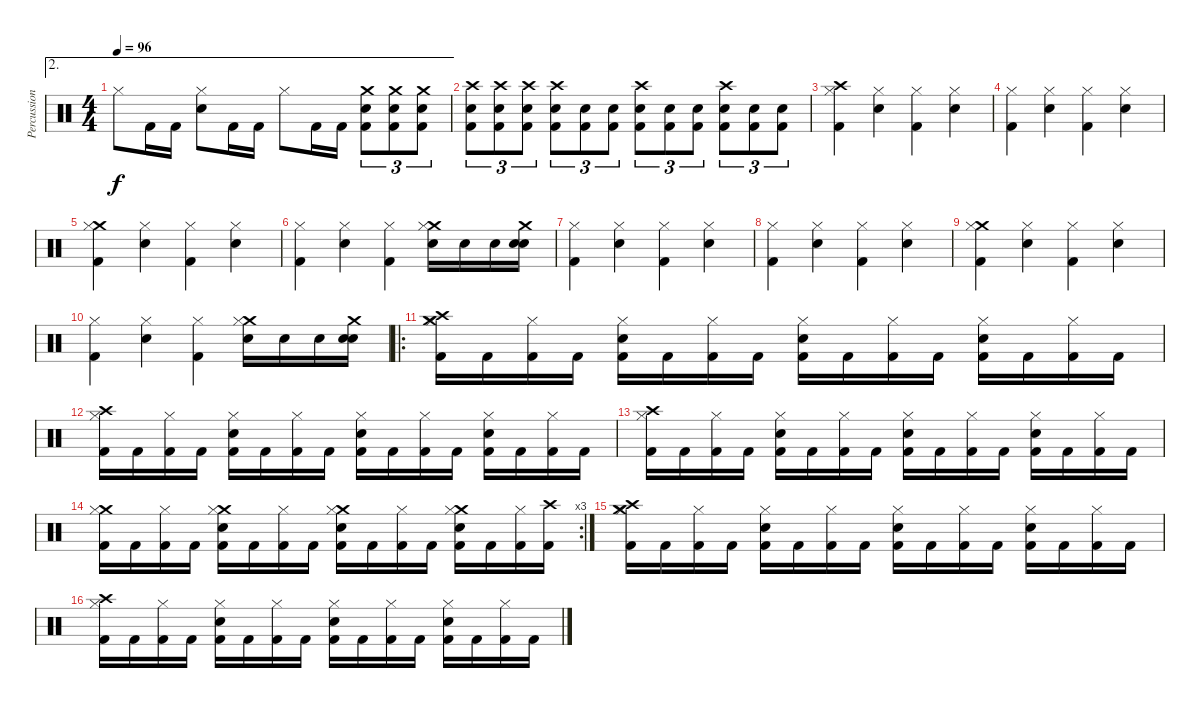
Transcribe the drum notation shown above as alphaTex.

\track ("Percussion" "Percussion") {instrument percussion bank 255}
\staff {score}
\articulation defaults
\ae 2
\ts (4 4)
\tempo 96
\clef neutral
\ks c "Hi-Hat (closed)".8{dy f} "Kick (hit) 2".16 "Kick (hit) 2".16
("Hi-Hat (closed)" "Electric Snare (hit)").8 "Kick (hit) 2".16 "Kick (hit) 2".16 "Hi-Hat (closed)".8 "Kick (hit) 2".16 "Kick (hit) 2".16 ("Crash medium (hit)" "Electric Snare (hit)" "Kick (hit) 2").8{tu (3 2)} ("Crash medium (hit)" "Electric Snare (hit)" "Kick (hit) 2").8{tu (3 2)} ("Crash medium (hit)" "Electric Snare (hit)" "Kick (hit) 2").8{tu (3 2)} |
("Crash high (hit)" "Electric Snare (hit)" "Kick (hit) 2").8{tu (3 2)} ("Crash high (hit)" "Electric Snare (hit)" "Kick (hit) 2").8{tu (3 2)} ("Crash high (hit)" "Electric Snare (hit)" "Kick (hit) 2").8{tu (3 2)} ("Crash high (hit)" "Electric Snare (hit)" "Kick (hit) 2").8{tu (3 2)} ("Electric Snare (hit)" "Kick (hit) 2").8{tu (3 2)} ("Electric Snare (hit)" "Kick (hit) 2").8{tu (3 2)} ("Crash high (hit)" "Electric Snare (hit)" "Kick (hit) 2").8{tu (3 2)} ("Electric Snare (hit)" "Kick (hit) 2").8{tu (3 2)} ("Electric Snare (hit)" "Kick (hit) 2").8{tu (3 2)} ("Crash high (hit)" "Electric Snare (hit)" "Kick (hit) 2").8{tu (3 2)} ("Electric Snare (hit)" "Kick (hit) 2").8{tu (3 2)} ("Electric Snare (hit)" "Kick (hit) 2").8{tu (3 2)} |
("Hi-Hat (closed)" "Crash high (hit)" "Kick (hit) 2").4 ("Hi-Hat (closed)" "Electric Snare (hit)").4 ("Hi-Hat (closed)" "Kick (hit) 2").4 ("Hi-Hat (closed)" "Electric Snare (hit)").4 |
("Hi-Hat (closed)" "Kick (hit) 2").4 ("Hi-Hat (closed)" "Electric Snare (hit)").4 ("Hi-Hat (closed)" "Kick (hit) 2").4 ("Hi-Hat (closed)" "Electric Snare (hit)").4 |
("Crash medium (hit)" "Hi-Hat (closed)" "Kick (hit) 2").4 ("Hi-Hat (closed)" "Electric Snare (hit)").4 ("Hi-Hat (closed)" "Kick (hit) 2").4 ("Hi-Hat (closed)" "Electric Snare (hit)").4 |
("Hi-Hat (closed)" "Kick (hit) 2").4 ("Hi-Hat (closed)" "Electric Snare (hit)").4 ("Hi-Hat (closed)" "Kick (hit) 2").4 ("Crash medium (hit)" "Hi-Hat (closed)" "Electric Snare (hit)").16 "Electric Snare (hit)".16 "Electric Snare (hit)".16 ("Crash medium (hit)" "Snare (hit)" "Electric Snare (hit)").16 |
("Hi-Hat (closed)" "Kick (hit) 2").4 ("Hi-Hat (closed)" "Electric Snare (hit)").4 ("Hi-Hat (closed)" "Kick (hit) 2").4 ("Hi-Hat (closed)" "Electric Snare (hit)").4 |
("Hi-Hat (closed)" "Kick (hit) 2").4 ("Hi-Hat (closed)" "Electric Snare (hit)").4 ("Hi-Hat (closed)" "Kick (hit) 2").4 ("Hi-Hat (closed)" "Electric Snare (hit)").4 |
("Crash medium (hit)" "Hi-Hat (closed)" "Kick (hit) 2").4 ("Hi-Hat (closed)" "Electric Snare (hit)").4 ("Hi-Hat (closed)" "Kick (hit) 2").4 ("Hi-Hat (closed)" "Electric Snare (hit)").4 |
("Hi-Hat (closed)" "Kick (hit) 2").4 ("Hi-Hat (closed)" "Electric Snare (hit)").4 ("Hi-Hat (closed)" "Kick (hit) 2").4 ("Crash medium (hit)" "Hi-Hat (closed)" "Electric Snare (hit)").16 "Electric Snare (hit)".16 "Electric Snare (hit)".16 ("Crash medium (hit)" "Snare (hit)" "Electric Snare (hit)").16 |
\ro
("Crash medium (hit)" "Crash high (hit)" "Hi-Hat (closed)" "Kick (hit) 2").16 "Kick (hit) 2".16 ("Hi-Hat (closed)" "Kick (hit) 2").16 "Kick (hit) 2".16 ("Hi-Hat (closed)" "Electric Snare (hit)" "Kick (hit) 2").16 "Kick (hit) 2".16 ("Hi-Hat (closed)" "Kick (hit) 2").16 "Kick (hit) 2".16 ("Hi-Hat (closed)" "Electric Snare (hit)" "Kick (hit) 2").16 "Kick (hit) 2".16 ("Hi-Hat (closed)" "Kick (hit) 2").16 "Kick (hit) 2".16 ("Hi-Hat (closed)" "Electric Snare (hit)" "Kick (hit) 2").16 "Kick (hit) 2".16 ("Hi-Hat (closed)" "Kick (hit) 2").16 "Kick (hit) 2".16 |
("Crash high (hit)" "Hi-Hat (closed)" "Kick (hit) 2").16 "Kick (hit) 2".16 ("Hi-Hat (closed)" "Kick (hit) 2").16 "Kick (hit) 2".16 ("Hi-Hat (closed)" "Electric Snare (hit)" "Kick (hit) 2").16 "Kick (hit) 2".16 ("Hi-Hat (closed)" "Kick (hit) 2").16 "Kick (hit) 2".16 ("Hi-Hat (closed)" "Electric Snare (hit)" "Kick (hit) 2").16 "Kick (hit) 2".16 ("Hi-Hat (closed)" "Kick (hit) 2").16 "Kick (hit) 2".16 ("Hi-Hat (closed)" "Electric Snare (hit)" "Kick (hit) 2").16 "Kick (hit) 2".16 ("Hi-Hat (closed)" "Kick (hit) 2").16 "Kick (hit) 2".16 |
("Crash high (hit)" "Hi-Hat (closed)" "Kick (hit) 2").16 "Kick (hit) 2".16 ("Hi-Hat (closed)" "Kick (hit) 2").16 "Kick (hit) 2".16 ("Hi-Hat (closed)" "Electric Snare (hit)" "Kick (hit) 2").16 "Kick (hit) 2".16 ("Hi-Hat (closed)" "Kick (hit) 2").16 "Kick (hit) 2".16 ("Hi-Hat (closed)" "Electric Snare (hit)" "Kick (hit) 2").16 "Kick (hit) 2".16 ("Hi-Hat (closed)" "Kick (hit) 2").16 "Kick (hit) 2".16 ("Hi-Hat (closed)" "Electric Snare (hit)" "Kick (hit) 2").16 "Kick (hit) 2".16 ("Hi-Hat (closed)" "Kick (hit) 2").16 "Kick (hit) 2".16 |
\rc 3
("Crash medium (hit)" "Hi-Hat (closed)" "Kick (hit) 2").16 "Kick (hit) 2".16 ("Hi-Hat (closed)" "Kick (hit) 2").16 "Kick (hit) 2".16 ("Crash medium (hit)" "Hi-Hat (closed)" "Electric Snare (hit)" "Kick (hit) 2").16 "Kick (hit) 2".16 ("Hi-Hat (closed)" "Kick (hit) 2").16 "Kick (hit) 2".16 ("Crash medium (hit)" "Hi-Hat (closed)" "Electric Snare (hit)" "Kick (hit) 2").16 "Kick (hit) 2".16 ("Hi-Hat (closed)" "Kick (hit) 2").16 "Kick (hit) 2".16 ("Crash medium (hit)" "Hi-Hat (closed)" "Electric Snare (hit)" "Kick (hit) 2").16 "Kick (hit) 2".16 ("Hi-Hat (closed)" "Kick (hit) 2").16 ("Crash high (hit)" "Kick (hit) 2").16 |
("Crash medium (hit)" "Crash high (hit)" "Hi-Hat (closed)" "Kick (hit) 2").16{volume 0} "Kick (hit) 2".16 ("Hi-Hat (closed)" "Kick (hit) 2").16 "Kick (hit) 2".16 ("Hi-Hat (closed)" "Electric Snare (hit)" "Kick (hit) 2").16 "Kick (hit) 2".16 ("Hi-Hat (closed)" "Kick (hit) 2").16 "Kick (hit) 2".16 ("Hi-Hat (closed)" "Electric Snare (hit)" "Kick (hit) 2").16 "Kick (hit) 2".16 ("Hi-Hat (closed)" "Kick (hit) 2").16 "Kick (hit) 2".16 ("Hi-Hat (closed)" "Electric Snare (hit)" "Kick (hit) 2").16 "Kick (hit) 2".16 ("Hi-Hat (closed)" "Kick (hit) 2").16 "Kick (hit) 2".16 |
("Crash high (hit)" "Hi-Hat (closed)" "Kick (hit) 2").16 "Kick (hit) 2".16 ("Hi-Hat (closed)" "Kick (hit) 2").16 "Kick (hit) 2".16 ("Hi-Hat (closed)" "Electric Snare (hit)" "Kick (hit) 2").16 "Kick (hit) 2".16 ("Hi-Hat (closed)" "Kick (hit) 2").16 "Kick (hit) 2".16 ("Hi-Hat (closed)" "Electric Snare (hit)" "Kick (hit) 2").16 "Kick (hit) 2".16 ("Hi-Hat (closed)" "Kick (hit) 2").16 "Kick (hit) 2".16 ("Hi-Hat (closed)" "Electric Snare (hit)" "Kick (hit) 2").16 "Kick (hit) 2".16 ("Hi-Hat (closed)" "Kick (hit) 2").16 "Kick (hit) 2".16
